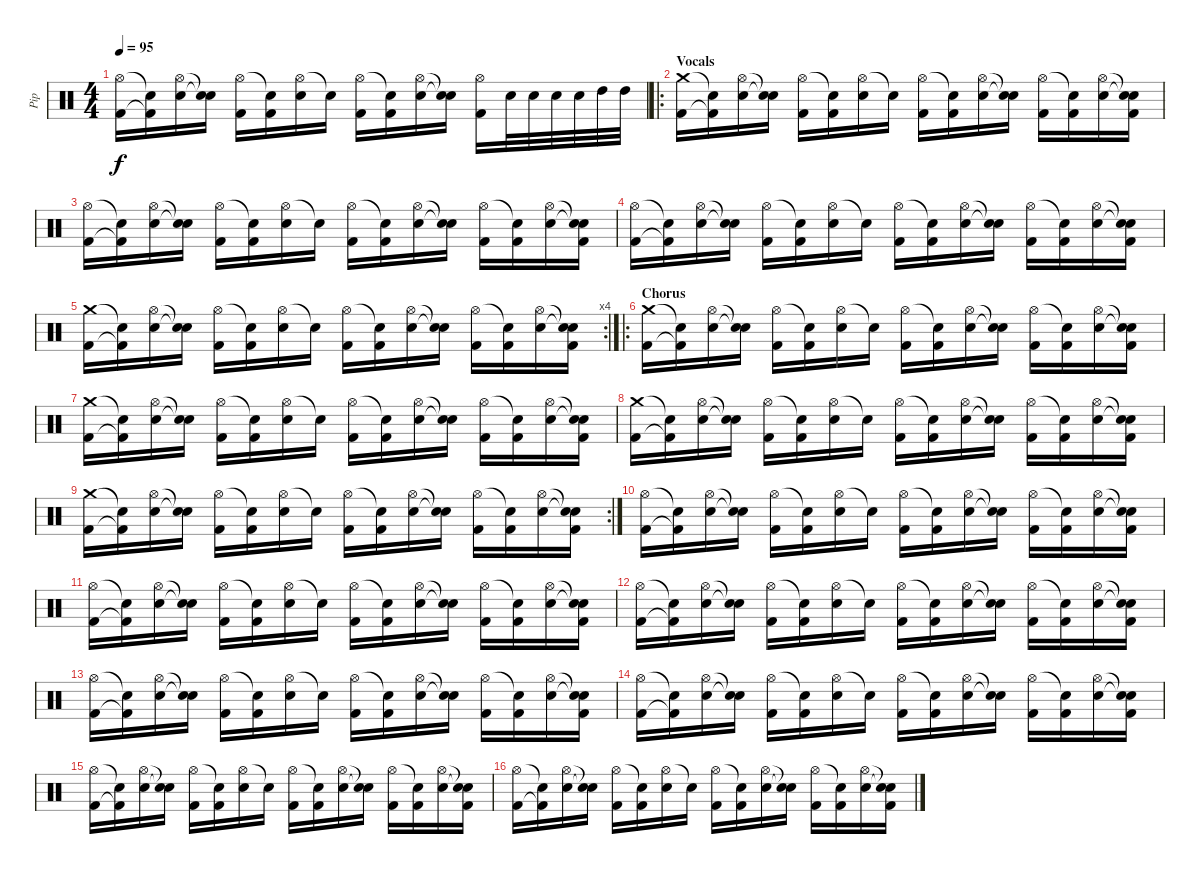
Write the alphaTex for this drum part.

\track ("Pip" "Pip") {instrument percussion}
\staff {score}
\articulation defaults
\ts (4 4)
\tempo 95
\clef neutral
\ks c
("Hi-Hat (open)" "Kick (hit) 2").16{dy f} ("Snare (hit)"{t} "Kick (hit) 2"{t}).16 ("Hi-Hat (open)" "Electric Snare (hit)").16 ("Snare (hit)"{t} "Snare (hit)"{t}).16 ("Hi-Hat (open)" "Kick (hit) 2").16 ("Snare (hit)"{t} "Kick (hit) 2").16 ("Hi-Hat (open)" "Electric Snare (hit)").16 "Snare (hit)"{t}.16 ("Hi-Hat (open)" "Kick (hit) 2").16 ("Snare (hit)"{t} "Kick (hit) 2").16 ("Hi-Hat (open)" "Electric Snare (hit)").16 ("Snare (hit)"{t} "Snare (hit)"{t}).16 ("Hi-Hat (open)" "Kick (hit) 2").16 "Electric Snare (hit)".32 "Electric Snare (hit)".32 "Electric Snare (hit)".32 "Electric Snare (hit)".32 "High Tom (hit)".32 "High Tom (hit)".32 |
\ro
\section ("" "Vocals")
("Crash medium (hit)" "Kick (hit) 2").16 ("Snare (hit)"{t} "Kick (hit) 2"{t}).16 ("Hi-Hat (open)" "Electric Snare (hit)").16 ("Snare (hit)"{t} "Snare (hit)"{t}).16 ("Hi-Hat (open)" "Kick (hit) 2").16 ("Snare (hit)"{t} "Kick (hit) 2").16 ("Hi-Hat (open)" "Electric Snare (hit)").16 "Snare (hit)"{t}.16 ("Hi-Hat (open)" "Kick (hit) 2").16 ("Snare (hit)"{t} "Kick (hit) 2").16 ("Hi-Hat (open)" "Electric Snare (hit)").16 ("Snare (hit)"{t} "Snare (hit)"{t}).16 ("Hi-Hat (open)" "Kick (hit) 2").16 ("Snare (hit)"{t} "Kick (hit) 2").16 ("Hi-Hat (open)" "Electric Snare (hit)").16 ("Snare (hit)"{t} "Snare (hit)"{t} "Kick (hit) 2").16 |
("Hi-Hat (open)" "Kick (hit) 2").16 ("Snare (hit)"{t} "Kick (hit) 2"{t}).16 ("Hi-Hat (open)" "Electric Snare (hit)").16 ("Snare (hit)"{t} "Snare (hit)"{t}).16 ("Hi-Hat (open)" "Kick (hit) 2").16 ("Snare (hit)"{t} "Kick (hit) 2").16 ("Hi-Hat (open)" "Electric Snare (hit)").16 "Snare (hit)"{t}.16 ("Hi-Hat (open)" "Kick (hit) 2").16 ("Snare (hit)"{t} "Kick (hit) 2").16 ("Hi-Hat (open)" "Electric Snare (hit)").16 ("Snare (hit)"{t} "Snare (hit)"{t}).16 ("Hi-Hat (open)" "Kick (hit) 2").16 ("Snare (hit)"{t} "Kick (hit) 2").16 ("Hi-Hat (open)" "Electric Snare (hit)").16 ("Snare (hit)"{t} "Snare (hit)"{t} "Kick (hit) 2").16 |
("Hi-Hat (open)" "Kick (hit) 2").16 ("Snare (hit)"{t} "Kick (hit) 2"{t}).16 ("Hi-Hat (open)" "Electric Snare (hit)").16 ("Snare (hit)"{t} "Snare (hit)"{t}).16 ("Hi-Hat (open)" "Kick (hit) 2").16 ("Snare (hit)"{t} "Kick (hit) 2").16 ("Hi-Hat (open)" "Electric Snare (hit)").16 "Snare (hit)"{t}.16 ("Hi-Hat (open)" "Kick (hit) 2").16 ("Snare (hit)"{t} "Kick (hit) 2").16 ("Hi-Hat (open)" "Electric Snare (hit)").16 ("Snare (hit)"{t} "Snare (hit)"{t}).16 ("Hi-Hat (open)" "Kick (hit) 2").16 ("Snare (hit)"{t} "Kick (hit) 2").16 ("Hi-Hat (open)" "Electric Snare (hit)").16 ("Snare (hit)"{t} "Snare (hit)"{t} "Kick (hit) 2").16 |
\rc 4
("Crash medium (hit)" "Kick (hit) 2").16 ("Snare (hit)"{t} "Kick (hit) 2"{t}).16 ("Hi-Hat (open)" "Electric Snare (hit)").16 ("Snare (hit)"{t} "Snare (hit)"{t}).16 ("Hi-Hat (open)" "Kick (hit) 2").16 ("Snare (hit)"{t} "Kick (hit) 2").16 ("Hi-Hat (open)" "Electric Snare (hit)").16 "Snare (hit)"{t}.16 ("Hi-Hat (open)" "Kick (hit) 2").16 ("Snare (hit)"{t} "Kick (hit) 2").16 ("Hi-Hat (open)" "Electric Snare (hit)").16 ("Snare (hit)"{t} "Snare (hit)"{t}).16 ("Hi-Hat (open)" "Kick (hit) 2").16 ("Snare (hit)"{t} "Kick (hit) 2").16 ("Hi-Hat (open)" "Electric Snare (hit)").16 ("Snare (hit)"{t} "Snare (hit)"{t} "Kick (hit) 2").16 |
\ro
\section ("" "Chorus")
("Crash medium (hit)" "Kick (hit) 2").16 ("Snare (hit)"{t} "Kick (hit) 2"{t}).16 ("Hi-Hat (open)" "Electric Snare (hit)").16 ("Snare (hit)"{t} "Snare (hit)"{t}).16 ("Hi-Hat (open)" "Kick (hit) 2").16 ("Snare (hit)"{t} "Kick (hit) 2").16 ("Hi-Hat (open)" "Electric Snare (hit)").16 "Snare (hit)"{t}.16 ("Hi-Hat (open)" "Kick (hit) 2").16 ("Snare (hit)"{t} "Kick (hit) 2").16 ("Hi-Hat (open)" "Electric Snare (hit)").16 ("Snare (hit)"{t} "Snare (hit)"{t}).16 ("Hi-Hat (open)" "Kick (hit) 2").16 ("Snare (hit)"{t} "Kick (hit) 2").16 ("Hi-Hat (open)" "Electric Snare (hit)").16 ("Snare (hit)"{t} "Snare (hit)"{t} "Kick (hit) 2").16 |
("Crash medium (hit)" "Kick (hit) 2").16 ("Snare (hit)"{t} "Kick (hit) 2"{t}).16 ("Hi-Hat (open)" "Electric Snare (hit)").16 ("Snare (hit)"{t} "Snare (hit)"{t}).16 ("Hi-Hat (open)" "Kick (hit) 2").16 ("Snare (hit)"{t} "Kick (hit) 2").16 ("Hi-Hat (open)" "Electric Snare (hit)").16 "Snare (hit)"{t}.16 ("Hi-Hat (open)" "Kick (hit) 2").16 ("Snare (hit)"{t} "Kick (hit) 2").16 ("Hi-Hat (open)" "Electric Snare (hit)").16 ("Snare (hit)"{t} "Snare (hit)"{t}).16 ("Hi-Hat (open)" "Kick (hit) 2").16 ("Snare (hit)"{t} "Kick (hit) 2").16 ("Hi-Hat (open)" "Electric Snare (hit)").16 ("Snare (hit)"{t} "Snare (hit)"{t} "Kick (hit) 2").16 |
("Crash medium (hit)" "Kick (hit) 2").16 ("Snare (hit)"{t} "Kick (hit) 2"{t}).16 ("Hi-Hat (open)" "Electric Snare (hit)").16 ("Snare (hit)"{t} "Snare (hit)"{t}).16 ("Hi-Hat (open)" "Kick (hit) 2").16 ("Snare (hit)"{t} "Kick (hit) 2").16 ("Hi-Hat (open)" "Electric Snare (hit)").16 "Snare (hit)"{t}.16 ("Hi-Hat (open)" "Kick (hit) 2").16 ("Snare (hit)"{t} "Kick (hit) 2").16 ("Hi-Hat (open)" "Electric Snare (hit)").16 ("Snare (hit)"{t} "Snare (hit)"{t}).16 ("Hi-Hat (open)" "Kick (hit) 2").16 ("Snare (hit)"{t} "Kick (hit) 2").16 ("Hi-Hat (open)" "Electric Snare (hit)").16 ("Snare (hit)"{t} "Snare (hit)"{t} "Kick (hit) 2").16 |
\rc 2
("Crash medium (hit)" "Kick (hit) 2").16 ("Snare (hit)"{t} "Kick (hit) 2"{t}).16 ("Hi-Hat (open)" "Electric Snare (hit)").16 ("Snare (hit)"{t} "Snare (hit)"{t}).16 ("Hi-Hat (open)" "Kick (hit) 2").16 ("Snare (hit)"{t} "Kick (hit) 2").16 ("Hi-Hat (open)" "Electric Snare (hit)").16 "Snare (hit)"{t}.16 ("Hi-Hat (open)" "Kick (hit) 2").16 ("Snare (hit)"{t} "Kick (hit) 2").16 ("Hi-Hat (open)" "Electric Snare (hit)").16 ("Snare (hit)"{t} "Snare (hit)"{t}).16 ("Hi-Hat (open)" "Kick (hit) 2").16 ("Snare (hit)"{t} "Kick (hit) 2").16 ("Hi-Hat (open)" "Electric Snare (hit)").16 ("Snare (hit)"{t} "Snare (hit)"{t} "Kick (hit) 2").16 |
("Hi-Hat (open)" "Kick (hit) 2").16 ("Snare (hit)"{t} "Kick (hit) 2"{t}).16 ("Hi-Hat (open)" "Electric Snare (hit)").16 ("Snare (hit)"{t} "Snare (hit)"{t}).16 ("Hi-Hat (open)" "Kick (hit) 2").16 ("Snare (hit)"{t} "Kick (hit) 2").16 ("Hi-Hat (open)" "Electric Snare (hit)").16 "Snare (hit)"{t}.16 ("Hi-Hat (open)" "Kick (hit) 2").16 ("Snare (hit)"{t} "Kick (hit) 2").16 ("Hi-Hat (open)" "Electric Snare (hit)").16 ("Snare (hit)"{t} "Snare (hit)"{t}).16 ("Hi-Hat (open)" "Kick (hit) 2").16 ("Snare (hit)"{t} "Kick (hit) 2").16 ("Hi-Hat (open)" "Electric Snare (hit)").16 ("Snare (hit)"{t} "Snare (hit)"{t} "Kick (hit) 2").16 |
("Hi-Hat (open)" "Kick (hit) 2").16 ("Snare (hit)"{t} "Kick (hit) 2"{t}).16 ("Hi-Hat (open)" "Electric Snare (hit)").16 ("Snare (hit)"{t} "Snare (hit)"{t}).16 ("Hi-Hat (open)" "Kick (hit) 2").16 ("Snare (hit)"{t} "Kick (hit) 2").16 ("Hi-Hat (open)" "Electric Snare (hit)").16 "Snare (hit)"{t}.16 ("Hi-Hat (open)" "Kick (hit) 2").16 ("Snare (hit)"{t} "Kick (hit) 2").16 ("Hi-Hat (open)" "Electric Snare (hit)").16 ("Snare (hit)"{t} "Snare (hit)"{t}).16 ("Hi-Hat (open)" "Kick (hit) 2").16 ("Snare (hit)"{t} "Kick (hit) 2").16 ("Hi-Hat (open)" "Electric Snare (hit)").16 ("Snare (hit)"{t} "Snare (hit)"{t} "Kick (hit) 2").16 |
("Hi-Hat (open)" "Kick (hit) 2").16 ("Snare (hit)"{t} "Kick (hit) 2"{t}).16 ("Hi-Hat (open)" "Electric Snare (hit)").16 ("Snare (hit)"{t} "Snare (hit)"{t}).16 ("Hi-Hat (open)" "Kick (hit) 2").16 ("Snare (hit)"{t} "Kick (hit) 2").16 ("Hi-Hat (open)" "Electric Snare (hit)").16 "Snare (hit)"{t}.16 ("Hi-Hat (open)" "Kick (hit) 2").16 ("Snare (hit)"{t} "Kick (hit) 2").16 ("Hi-Hat (open)" "Electric Snare (hit)").16 ("Snare (hit)"{t} "Snare (hit)"{t}).16 ("Hi-Hat (open)" "Kick (hit) 2").16 ("Snare (hit)"{t} "Kick (hit) 2").16 ("Hi-Hat (open)" "Electric Snare (hit)").16 ("Snare (hit)"{t} "Snare (hit)"{t} "Kick (hit) 2").16 |
("Hi-Hat (open)" "Kick (hit) 2").16 ("Snare (hit)"{t} "Kick (hit) 2"{t}).16 ("Hi-Hat (open)" "Electric Snare (hit)").16 ("Snare (hit)"{t} "Snare (hit)"{t}).16 ("Hi-Hat (open)" "Kick (hit) 2").16 ("Snare (hit)"{t} "Kick (hit) 2").16 ("Hi-Hat (open)" "Electric Snare (hit)").16 "Snare (hit)"{t}.16 ("Hi-Hat (open)" "Kick (hit) 2").16 ("Snare (hit)"{t} "Kick (hit) 2").16 ("Hi-Hat (open)" "Electric Snare (hit)").16 ("Snare (hit)"{t} "Snare (hit)"{t}).16 ("Hi-Hat (open)" "Kick (hit) 2").16 ("Snare (hit)"{t} "Kick (hit) 2").16 ("Hi-Hat (open)" "Electric Snare (hit)").16 ("Snare (hit)"{t} "Snare (hit)"{t} "Kick (hit) 2").16 |
("Hi-Hat (open)" "Kick (hit) 2").16 ("Snare (hit)"{t} "Kick (hit) 2"{t}).16 ("Hi-Hat (open)" "Electric Snare (hit)").16 ("Snare (hit)"{t} "Snare (hit)"{t}).16 ("Hi-Hat (open)" "Kick (hit) 2").16 ("Snare (hit)"{t} "Kick (hit) 2").16 ("Hi-Hat (open)" "Electric Snare (hit)").16 "Snare (hit)"{t}.16 ("Hi-Hat (open)" "Kick (hit) 2").16 ("Snare (hit)"{t} "Kick (hit) 2").16 ("Hi-Hat (open)" "Electric Snare (hit)").16 ("Snare (hit)"{t} "Snare (hit)"{t}).16 ("Hi-Hat (open)" "Kick (hit) 2").16 ("Snare (hit)"{t} "Kick (hit) 2").16 ("Hi-Hat (open)" "Electric Snare (hit)").16 ("Snare (hit)"{t} "Snare (hit)"{t} "Kick (hit) 2").16 |
("Hi-Hat (open)" "Kick (hit) 2").16 ("Snare (hit)"{t} "Kick (hit) 2"{t}).16 ("Hi-Hat (open)" "Electric Snare (hit)").16 ("Snare (hit)"{t} "Snare (hit)"{t}).16 ("Hi-Hat (open)" "Kick (hit) 2").16 ("Snare (hit)"{t} "Kick (hit) 2").16 ("Hi-Hat (open)" "Electric Snare (hit)").16 "Snare (hit)"{t}.16 ("Hi-Hat (open)" "Kick (hit) 2").16 ("Snare (hit)"{t} "Kick (hit) 2").16 ("Hi-Hat (open)" "Electric Snare (hit)").16 ("Snare (hit)"{t} "Snare (hit)"{t}).16 ("Hi-Hat (open)" "Kick (hit) 2").16 ("Snare (hit)"{t} "Kick (hit) 2").16 ("Hi-Hat (open)" "Electric Snare (hit)").16 ("Snare (hit)"{t} "Snare (hit)"{t} "Kick (hit) 2").16 |
("Hi-Hat (open)" "Kick (hit) 2").16 ("Snare (hit)"{t} "Kick (hit) 2"{t}).16 ("Hi-Hat (open)" "Electric Snare (hit)").16 ("Snare (hit)"{t} "Snare (hit)"{t}).16 ("Hi-Hat (open)" "Kick (hit) 2").16 ("Snare (hit)"{t} "Kick (hit) 2").16 ("Hi-Hat (open)" "Electric Snare (hit)").16 "Snare (hit)"{t}.16 ("Hi-Hat (open)" "Kick (hit) 2").16 ("Snare (hit)"{t} "Kick (hit) 2").16 ("Hi-Hat (open)" "Electric Snare (hit)").16 ("Snare (hit)"{t} "Snare (hit)"{t}).16 ("Hi-Hat (open)" "Kick (hit) 2").16 ("Snare (hit)"{t} "Kick (hit) 2").16 ("Hi-Hat (open)" "Electric Snare (hit)").16 ("Snare (hit)"{t} "Snare (hit)"{t} "Kick (hit) 2").16
